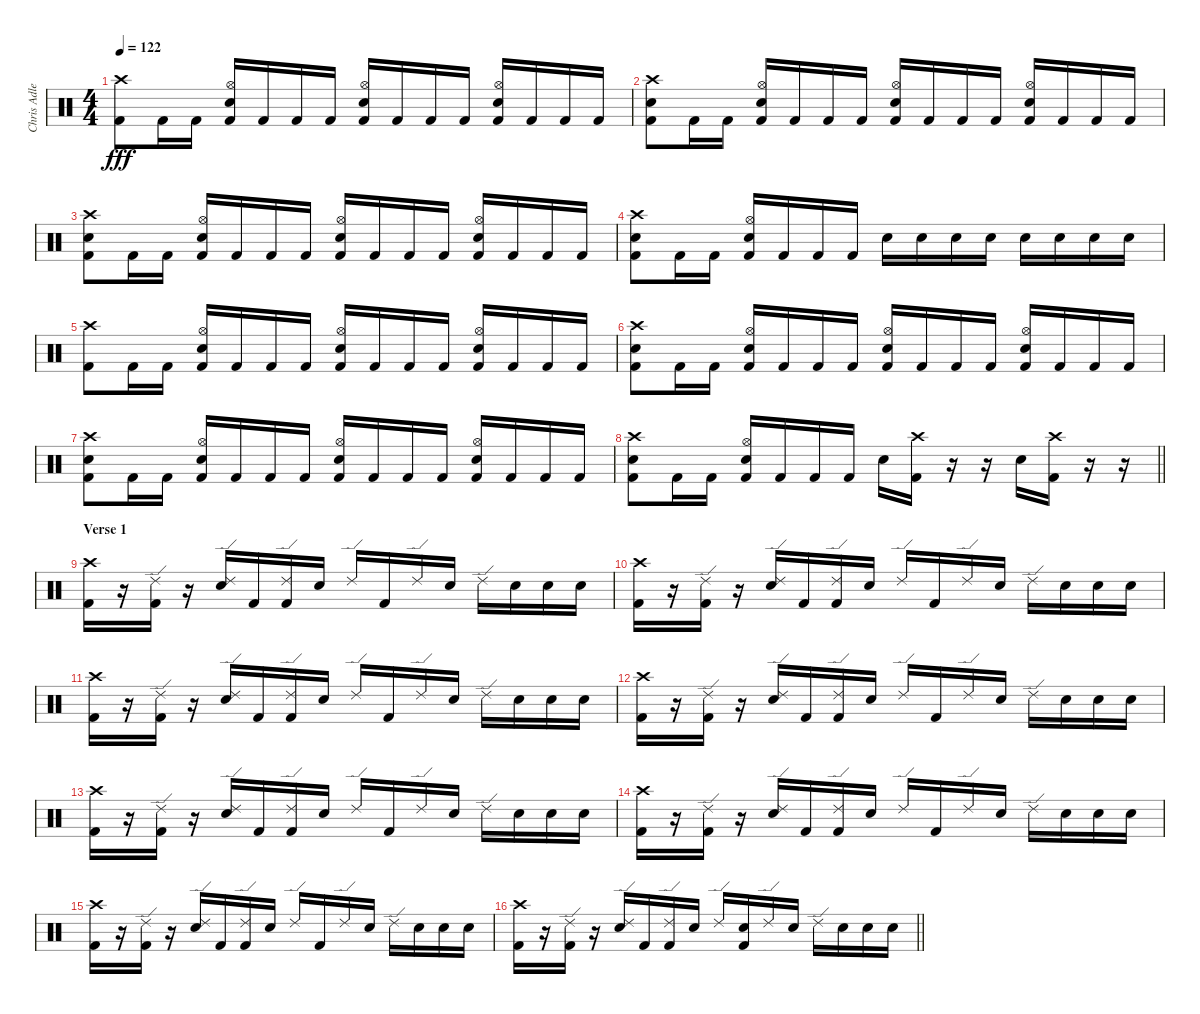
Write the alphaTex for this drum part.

\track ("Chris Adler" "Chris Adle") {instrument percussion}
\staff {score}
\articulation defaults
\ts (4 4)
\tempo 122
\clef neutral
\ks c
("Crash high (hit)" "Kick (hit) 2").8{dy fff} "Kick (hit) 2".16 "Kick (hit) 2".16 ("Hi-Hat (open)" "Snare (hit) 2" "Kick (hit) 2").16 "Kick (hit) 2".16 "Kick (hit) 2".16 "Kick (hit) 2".16 ("Hi-Hat (open)" "Snare (hit) 2" "Kick (hit) 2").16 "Kick (hit) 2".16 "Kick (hit) 2".16 "Kick (hit) 2".16 ("Hi-Hat (open)" "Snare (hit) 2" "Kick (hit) 2").16 "Kick (hit) 2".16 "Kick (hit) 2".16 "Kick (hit) 2".16 |
("Crash high (hit)" "Snare (hit) 2" "Kick (hit) 2").8 "Kick (hit) 2".16 "Kick (hit) 2".16 ("Hi-Hat (open)" "Snare (hit) 2" "Kick (hit) 2").16 "Kick (hit) 2".16 "Kick (hit) 2".16 "Kick (hit) 2".16 ("Hi-Hat (open)" "Snare (hit) 2" "Kick (hit) 2").16 "Kick (hit) 2".16 "Kick (hit) 2".16 "Kick (hit) 2".16 ("Hi-Hat (open)" "Snare (hit) 2" "Kick (hit) 2").16 "Kick (hit) 2".16 "Kick (hit) 2".16 "Kick (hit) 2".16 |
("Crash high (hit)" "Snare (hit) 2" "Kick (hit) 2").8 "Kick (hit) 2".16 "Kick (hit) 2".16 ("Hi-Hat (open)" "Snare (hit) 2" "Kick (hit) 2").16 "Kick (hit) 2".16 "Kick (hit) 2".16 "Kick (hit) 2".16 ("Hi-Hat (open)" "Snare (hit) 2" "Kick (hit) 2").16 "Kick (hit) 2".16 "Kick (hit) 2".16 "Kick (hit) 2".16 ("Hi-Hat (open)" "Snare (hit) 2" "Kick (hit) 2").16 "Kick (hit) 2".16 "Kick (hit) 2".16 "Kick (hit) 2".16 |
("Crash high (hit)" "Snare (hit) 2" "Kick (hit) 2").8 "Kick (hit) 2".16 "Kick (hit) 2".16 ("Hi-Hat (open)" "Snare (hit) 2" "Kick (hit) 2").16 "Kick (hit) 2".16 "Kick (hit) 2".16 "Kick (hit) 2".16 "Snare (hit) 2".16 "Snare (hit) 2".16 "Snare (hit) 2".16 "Snare (hit) 2".16 "Snare (hit) 2".16 "Snare (hit) 2".16 "Snare (hit) 2".16 "Snare (hit) 2".16 |
("Crash high (hit)" "Kick (hit) 2").8 "Kick (hit) 2".16 "Kick (hit) 2".16 ("Hi-Hat (open)" "Snare (hit) 2" "Kick (hit) 2").16 "Kick (hit) 2".16 "Kick (hit) 2".16 "Kick (hit) 2".16 ("Hi-Hat (open)" "Snare (hit) 2" "Kick (hit) 2").16 "Kick (hit) 2".16 "Kick (hit) 2".16 "Kick (hit) 2".16 ("Hi-Hat (open)" "Snare (hit) 2" "Kick (hit) 2").16 "Kick (hit) 2".16 "Kick (hit) 2".16 "Kick (hit) 2".16 |
("Crash high (hit)" "Snare (hit) 2" "Kick (hit) 2").8 "Kick (hit) 2".16 "Kick (hit) 2".16 ("Hi-Hat (open)" "Snare (hit) 2" "Kick (hit) 2").16 "Kick (hit) 2".16 "Kick (hit) 2".16 "Kick (hit) 2".16 ("Hi-Hat (open)" "Snare (hit) 2" "Kick (hit) 2").16 "Kick (hit) 2".16 "Kick (hit) 2".16 "Kick (hit) 2".16 ("Hi-Hat (open)" "Snare (hit) 2" "Kick (hit) 2").16 "Kick (hit) 2".16 "Kick (hit) 2".16 "Kick (hit) 2".16 |
("Crash high (hit)" "Snare (hit) 2" "Kick (hit) 2").8 "Kick (hit) 2".16 "Kick (hit) 2".16 ("Hi-Hat (open)" "Snare (hit) 2" "Kick (hit) 2").16 "Kick (hit) 2".16 "Kick (hit) 2".16 "Kick (hit) 2".16 ("Hi-Hat (open)" "Snare (hit) 2" "Kick (hit) 2").16 "Kick (hit) 2".16 "Kick (hit) 2".16 "Kick (hit) 2".16 ("Hi-Hat (open)" "Snare (hit) 2" "Kick (hit) 2").16 "Kick (hit) 2".16 "Kick (hit) 2".16 "Kick (hit) 2".16 |
\barLineRight lightlight
("Crash high (hit)" "Snare (hit) 2" "Kick (hit) 2").8 "Kick (hit) 2".16 "Kick (hit) 2".16 ("Hi-Hat (open)" "Snare (hit) 2" "Kick (hit) 2").16 "Kick (hit) 2".16 "Kick (hit) 2".16 "Kick (hit) 2".16 "Snare (hit) 2".16 ("Crash high (hit)" "Kick (hit) 2").16 r.16 r.16 "Snare (hit) 2".16 ("Crash high (hit)" "Kick (hit) 2").16 r.16 r.16 |
\section ("" "Verse 1")
("Crash high (hit)" "Kick (hit) 2").16 r.16 ("Ride (edge) 2" "Kick (hit) 2").16 r.16 ("Ride (edge) 2" "Snare (hit) 2").16 "Kick (hit) 2".16 ("Ride (edge) 2" "Kick (hit) 2").16 "Snare (hit) 2".16 "Ride (edge) 2".16 "Kick (hit) 2".16 "Ride (edge) 2".16 "Snare (hit) 2".16 "Ride (edge) 2".16 "Snare (hit) 2".16 "Snare (hit) 2".16 "Snare (hit) 2".16 |
("Crash high (hit)" "Kick (hit) 2").16 r.16 ("Ride (edge) 2" "Kick (hit) 2").16 r.16 ("Ride (edge) 2" "Snare (hit) 2").16 "Kick (hit) 2".16 ("Ride (edge) 2" "Kick (hit) 2").16 "Snare (hit) 2".16 "Ride (edge) 2".16 "Kick (hit) 2".16 "Ride (edge) 2".16 "Snare (hit) 2".16 "Ride (edge) 2".16 "Snare (hit) 2".16 "Snare (hit) 2".16 "Snare (hit) 2".16 |
("Crash high (hit)" "Kick (hit) 2").16 r.16 ("Ride (edge) 2" "Kick (hit) 2").16 r.16 ("Ride (edge) 2" "Snare (hit) 2").16 "Kick (hit) 2".16 ("Ride (edge) 2" "Kick (hit) 2").16 "Snare (hit) 2".16 "Ride (edge) 2".16 "Kick (hit) 2".16 "Ride (edge) 2".16 "Snare (hit) 2".16 "Ride (edge) 2".16 "Snare (hit) 2".16 "Snare (hit) 2".16 "Snare (hit) 2".16 |
("Crash high (hit)" "Kick (hit) 2").16 r.16 ("Ride (edge) 2" "Kick (hit) 2").16 r.16 ("Ride (edge) 2" "Snare (hit) 2").16 "Kick (hit) 2".16 ("Ride (edge) 2" "Kick (hit) 2").16 "Snare (hit) 2".16 "Ride (edge) 2".16 "Kick (hit) 2".16 "Ride (edge) 2".16 "Snare (hit) 2".16 "Ride (edge) 2".16 "Snare (hit) 2".16 "Snare (hit) 2".16 "Snare (hit) 2".16 |
("Crash high (hit)" "Kick (hit) 2").16 r.16 ("Ride (edge) 2" "Kick (hit) 2").16 r.16 ("Ride (edge) 2" "Snare (hit) 2").16 "Kick (hit) 2".16 ("Ride (edge) 2" "Kick (hit) 2").16 "Snare (hit) 2".16 "Ride (edge) 2".16 "Kick (hit) 2".16 "Ride (edge) 2".16 "Snare (hit) 2".16 "Ride (edge) 2".16 "Snare (hit) 2".16 "Snare (hit) 2".16 "Snare (hit) 2".16 |
("Crash high (hit)" "Kick (hit) 2").16 r.16 ("Ride (edge) 2" "Kick (hit) 2").16 r.16 ("Ride (edge) 2" "Snare (hit) 2").16 "Kick (hit) 2".16 ("Ride (edge) 2" "Kick (hit) 2").16 "Snare (hit) 2".16 "Ride (edge) 2".16 "Kick (hit) 2".16 "Ride (edge) 2".16 "Snare (hit) 2".16 "Ride (edge) 2".16 "Snare (hit) 2".16 "Snare (hit) 2".16 "Snare (hit) 2".16 |
("Crash high (hit)" "Kick (hit) 2").16 r.16 ("Ride (edge) 2" "Kick (hit) 2").16 r.16 ("Ride (edge) 2" "Snare (hit) 2").16 "Kick (hit) 2".16 ("Ride (edge) 2" "Kick (hit) 2").16 "Snare (hit) 2".16 "Ride (edge) 2".16 "Kick (hit) 2".16 "Ride (edge) 2".16 "Snare (hit) 2".16 "Ride (edge) 2".16 "Snare (hit) 2".16 "Snare (hit) 2".16 "Snare (hit) 2".16 |
\barLineRight lightlight
("Crash high (hit)" "Kick (hit) 2").16 r.16 ("Ride (edge) 2" "Kick (hit) 2").16 r.16 ("Ride (edge) 2" "Snare (hit) 2").16 "Kick (hit) 2".16 ("Ride (edge) 2" "Kick (hit) 2").16 "Snare (hit) 2".16 "Ride (edge) 2".16 ("Snare (hit) 2" "Kick (hit) 2").16 "Ride (edge) 2".16 "Snare (hit) 2".16 "Ride (edge) 2".16 "Snare (hit) 2".16 "Snare (hit) 2".16 "Snare (hit) 2".16
